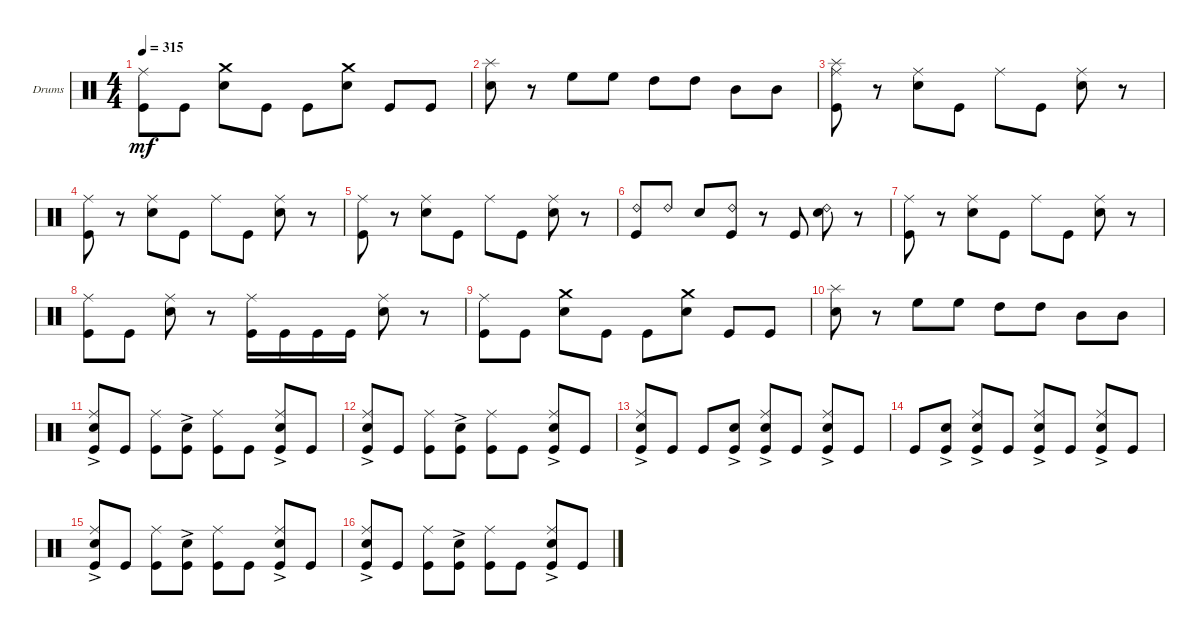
\bracketExtendMode groupsimilarinstruments
\firstSystemTrackNameOrientation horizontal
\otherSystemsTrackNameOrientation horizontal
\track ("Drumkit" "Drums") {instrument percussion}
\staff {score}
\articulation defaults
\ts (4 4)
\tempo 315
\clef neutral
\ks c
("Kick (hit)" "Ride (middle)").8{dy mf} "Kick (hit)".8 ("Snare (hit) 2" "Crash medium (hit)").8 "Kick (hit)".8 "Kick (hit)".8 ("Snare (hit) 2" "Crash medium (hit)").8 "Kick (hit)".8 "Kick (hit)".8 |
("Snare (hit) 2" "Splash (hit)").8 r.8 "High Floor Tom (hit)".8 "High Floor Tom (hit)".8 "High Tom (hit)".8 "High Tom (hit)".8 "Mid Tom (hit)".8 "Mid Tom (hit)".8 |
("Kick (hit)" "Ride (middle)" "Splash (hit)").8 r.8 ("Snare (hit) 2" "Ride (middle)").8 "Kick (hit)".8 "Ride (middle)".8 "Kick (hit)".8 ("Snare (hit) 2" "Ride (middle)").8 r.8 |
("Kick (hit)" "Ride (middle)").8 r.8 ("Snare (hit) 2" "Ride (middle)").8 "Kick (hit)".8 "Ride (middle)".8 "Kick (hit)".8 ("Snare (hit) 2" "Ride (middle)").8 r.8 |
("Kick (hit)" "Ride (middle)").8 r.8 ("Snare (hit) 2" "Ride (middle)").8 "Kick (hit)".8 "Ride (middle)".8 "Kick (hit)".8 ("Snare (hit) 2" "Ride (middle)").8 r.8 |
("Kick (hit)" "Ride (bell) 2").8 "Ride (bell) 2".8 "Snare (hit) 2".8 ("Kick (hit)" "Ride (bell) 2").8 r.8 "Kick (hit)".8 ("Snare (hit) 2" "Ride (bell) 2").8 r.8 |
("Kick (hit)" "Ride (middle)").8 r.8 ("Snare (hit) 2" "Ride (middle)").8 "Kick (hit)".8 "Ride (middle)".8 "Kick (hit)".8 ("Snare (hit) 2" "Ride (middle)").8 r.8 |
("Kick (hit)" "Ride (middle)").8 "Kick (hit)".8 ("Snare (hit) 2" "Ride (middle)").8 r.8 ("Kick (hit)" "Ride (middle)").16 "Kick (hit)".16 "Kick (hit)".16 "Kick (hit)".16 ("Snare (hit) 2" "Ride (middle)").8 r.8 |
("Kick (hit)" "Ride (middle)").8 "Kick (hit)".8 ("Snare (hit) 2" "Crash medium (hit)").8 "Kick (hit)".8 "Kick (hit)".8 ("Snare (hit) 2" "Crash medium (hit)").8 "Kick (hit)".8 "Kick (hit)".8 |
("Snare (hit) 2" "Splash (hit)").8 r.8 "High Floor Tom (hit)".8 "High Floor Tom (hit)".8 "High Tom (hit)".8 "High Tom (hit)".8 "Mid Tom (hit)".8 "Mid Tom (hit)".8 |
("Snare (hit) 2"{ac} "Kick (hit)" "Ride (middle)").8 "Kick (hit)".8 ("Kick (hit)" "Ride (middle)").8 ("Snare (hit) 2"{ac} "Kick (hit)").8 ("Kick (hit)" "Ride (middle)").8 "Kick (hit)".8 ("Snare (hit) 2"{ac} "Kick (hit)" "Ride (middle)").8 "Kick (hit)".8 |
("Snare (hit) 2"{ac} "Kick (hit)" "Ride (middle)").8 "Kick (hit)".8 ("Kick (hit)" "Ride (middle)").8 ("Snare (hit) 2"{ac} "Kick (hit)").8 ("Kick (hit)" "Ride (middle)").8 "Kick (hit)".8 ("Snare (hit) 2"{ac} "Kick (hit)" "Ride (middle)").8 "Kick (hit)".8 |
("Snare (hit) 2"{ac} "Kick (hit)" "Ride (middle)").8 "Kick (hit)".8 "Kick (hit)".8 ("Snare (hit) 2"{ac} "Kick (hit)").8 ("Snare (hit) 2"{ac} "Kick (hit)" "Ride (middle)").8 "Kick (hit)".8 ("Snare (hit) 2"{ac} "Kick (hit)" "Ride (middle)").8 "Kick (hit)".8 |
"Kick (hit)".8 ("Snare (hit) 2"{ac} "Kick (hit)").8 ("Snare (hit) 2"{ac} "Kick (hit)" "Ride (middle)").8 "Kick (hit)".8 ("Snare (hit) 2"{ac} "Kick (hit)" "Ride (middle)").8 "Kick (hit)".8 ("Snare (hit) 2"{ac} "Kick (hit)" "Ride (middle)").8 "Kick (hit)".8 |
("Snare (hit) 2"{ac} "Kick (hit)" "Ride (middle)").8 "Kick (hit)".8 ("Kick (hit)" "Ride (middle)").8 ("Snare (hit) 2"{ac} "Kick (hit)").8 ("Kick (hit)" "Ride (middle)").8 "Kick (hit)".8 ("Snare (hit) 2"{ac} "Kick (hit)" "Ride (middle)").8 "Kick (hit)".8 |
("Snare (hit) 2"{ac} "Kick (hit)" "Ride (middle)").8 "Kick (hit)".8 ("Kick (hit)" "Ride (middle)").8 ("Snare (hit) 2"{ac} "Kick (hit)").8 ("Kick (hit)" "Ride (middle)").8 "Kick (hit)".8 ("Snare (hit) 2"{ac} "Kick (hit)" "Ride (middle)").8 "Kick (hit)".8
